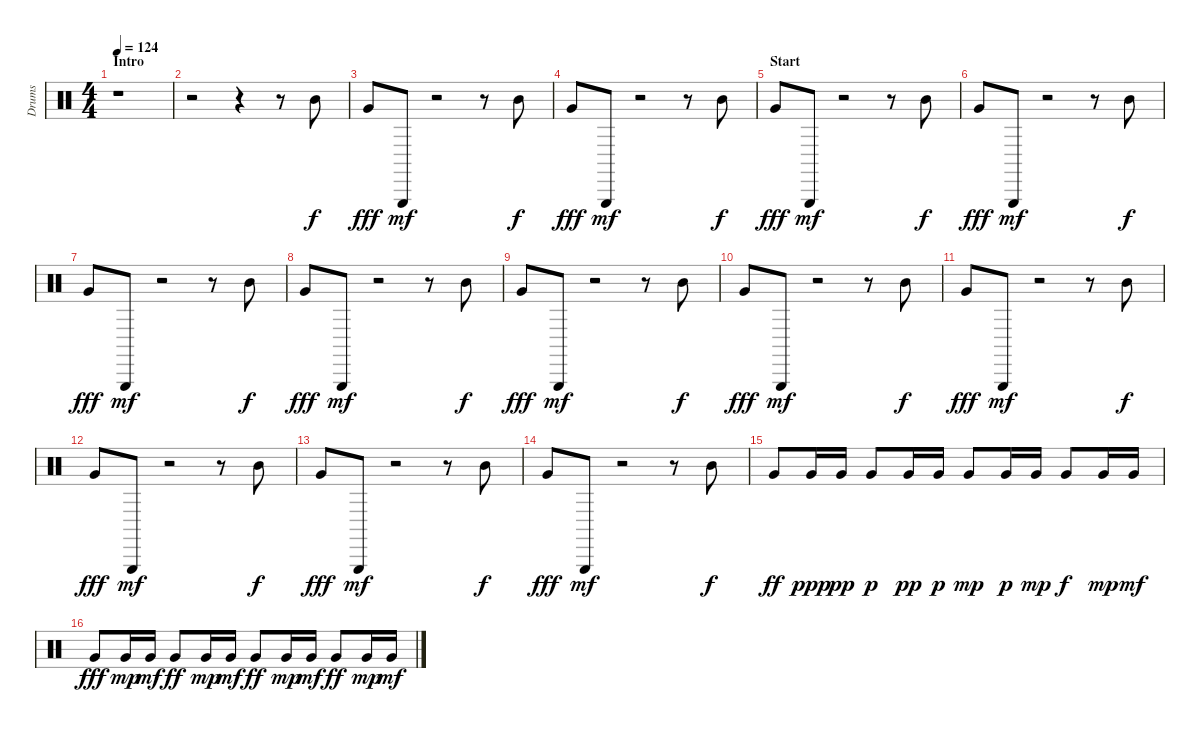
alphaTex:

\track ("Drums" "Drums") {instrument percussion}
\staff {score}
\articulation defaults
\ts (4 4)
\section ("" "Intro")
\tempo 124
\clef neutral
\ks c
r.1{dy f} |
r.2 r.4 r.8 "Mid Tom (hit)".8 |
"Very Low Tom (hit)".8{dy fff} "Triangle (hit)".8{dy mf} r.2 r.8 "Mid Tom (hit)".8{dy f} |
"Very Low Tom (hit)".8{dy fff} "Triangle (hit)".8{dy mf} r.2 r.8 "Mid Tom (hit)".8{dy f} |
\section ("" "Start")
"Very Low Tom (hit)".8{dy fff} "Triangle (hit)".8{dy mf} r.2 r.8 "Mid Tom (hit)".8{dy f} |
"Very Low Tom (hit)".8{dy fff} "Triangle (hit)".8{dy mf} r.2 r.8 "Mid Tom (hit)".8{dy f} |
"Very Low Tom (hit)".8{dy fff} "Triangle (hit)".8{dy mf} r.2 r.8 "Mid Tom (hit)".8{dy f} |
"Very Low Tom (hit)".8{dy fff} "Triangle (hit)".8{dy mf} r.2 r.8 "Mid Tom (hit)".8{dy f} |
"Very Low Tom (hit)".8{dy fff} "Triangle (hit)".8{dy mf} r.2 r.8 "Mid Tom (hit)".8{dy f} |
"Very Low Tom (hit)".8{dy fff} "Triangle (hit)".8{dy mf} r.2 r.8 "Mid Tom (hit)".8{dy f} |
"Very Low Tom (hit)".8{dy fff} "Triangle (hit)".8{dy mf} r.2 r.8 "Mid Tom (hit)".8{dy f} |
"Very Low Tom (hit)".8{dy fff} "Triangle (hit)".8{dy mf} r.2 r.8 "Mid Tom (hit)".8{dy f} |
"Very Low Tom (hit)".8{dy fff} "Triangle (hit)".8{dy mf} r.2 r.8 "Mid Tom (hit)".8{dy f} |
"Very Low Tom (hit)".8{dy fff} "Triangle (hit)".8{dy mf} r.2 r.8 "Mid Tom (hit)".8{dy f} |
"Very Low Tom (hit)".8{dy ff} "Very Low Tom (hit)".16{dy ppp} "Very Low Tom (hit)".16{dy pp} "Very Low Tom (hit)".8{dy p} "Very Low Tom (hit)".16{dy pp} "Very Low Tom (hit)".16{dy p} "Very Low Tom (hit)".8{dy mp} "Very Low Tom (hit)".16{dy p} "Very Low Tom (hit)".16{dy mp} "Very Low Tom (hit)".8{dy f} "Very Low Tom (hit)".16{dy mp} "Very Low Tom (hit)".16{dy mf} |
"Very Low Tom (hit)".8{dy fff} "Very Low Tom (hit)".16{dy mp} "Very Low Tom (hit)".16{dy mf} "Very Low Tom (hit)".8{dy ff} "Very Low Tom (hit)".16{dy mp} "Very Low Tom (hit)".16{dy mf} "Very Low Tom (hit)".8{dy ff} "Very Low Tom (hit)".16{dy mp} "Very Low Tom (hit)".16{dy mf} "Very Low Tom (hit)".8{dy ff} "Very Low Tom (hit)".16{dy mp} "Very Low Tom (hit)".16{dy mf}
